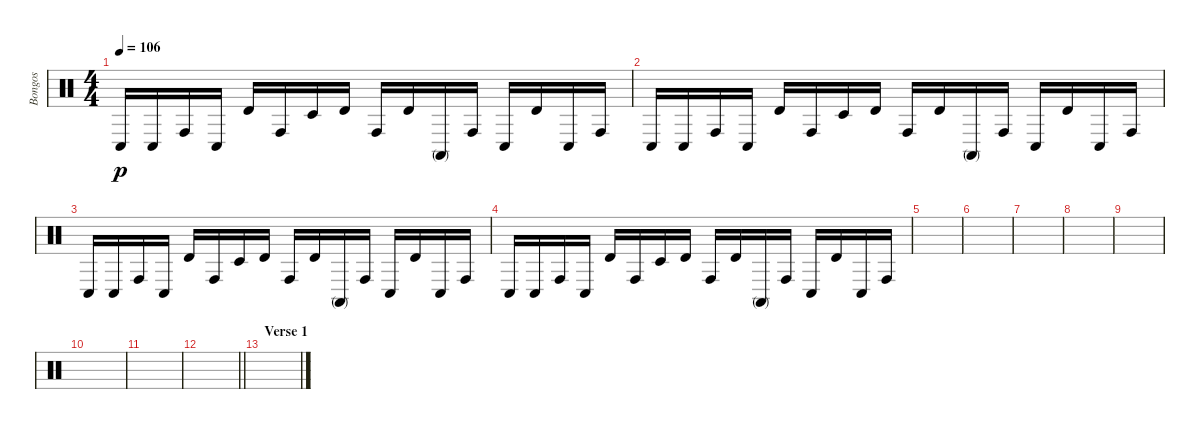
\track ("Bongos" "Bongos") {instrument percussion}
\staff {score}
\articulation defaults
\ts (4 4)
\tempo 106
\clef neutral
\ks c "Conga low (hit)".16{dy p} "Conga low (hit)".16 "Conga high (hit)".16 "Conga low (hit)".16 "Timbale high (hit)".16 "Conga high (hit)".16 "Timbale low (hit)".16 "Timbale high (hit)".16 "Conga high (hit)".16 "Timbale high (hit)".16 "Conga high (mute)".16 "Conga high (hit)".16 "Conga low (hit)".16 "Timbale high (hit)".16 "Conga low (hit)".16 "Conga high (hit)".16
|
"Conga low (hit)".16 "Conga low (hit)".16 "Conga high (hit)".16 "Conga low (hit)".16 "Timbale high (hit)".16 "Conga high (hit)".16 "Timbale low (hit)".16 "Timbale high (hit)".16 "Conga high (hit)".16 "Timbale high (hit)".16 "Conga high (mute)".16 "Conga high (hit)".16 "Conga low (hit)".16 "Timbale high (hit)".16 "Conga low (hit)".16 "Conga high (hit)".16 |
"Conga low (hit)".16 "Conga low (hit)".16 "Conga high (hit)".16 "Conga low (hit)".16 "Timbale high (hit)".16 "Conga high (hit)".16 "Timbale low (hit)".16 "Timbale high (hit)".16 "Conga high (hit)".16 "Timbale high (hit)".16 "Conga high (mute)".16 "Conga high (hit)".16 "Conga low (hit)".16 "Timbale high (hit)".16 "Conga low (hit)".16 "Conga high (hit)".16 |
"Conga low (hit)".16 "Conga low (hit)".16 "Conga high (hit)".16 "Conga low (hit)".16 "Timbale high (hit)".16 "Conga high (hit)".16 "Timbale low (hit)".16 "Timbale high (hit)".16 "Conga high (hit)".16 "Timbale high (hit)".16 "Conga high (mute)".16 "Conga high (hit)".16 "Conga low (hit)".16 "Timbale high (hit)".16 "Conga low (hit)".16 "Conga high (hit)".16 |
|
|
|
|
|
|
|
\barLineRight lightlight
|
\section ("" "Verse 1")
